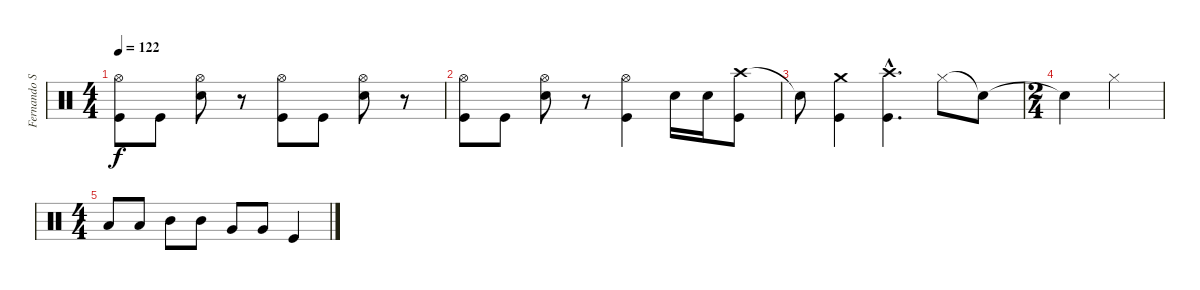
\track ("Fernando Sanchez" "Fernando S") {instrument percussion}
\staff {score}
\articulation defaults
\ts (4 4)
\tempo 122
\clef neutral
\ks c
("Hi-Hat (open)" "Kick (hit)").8{dy f} "Kick (hit)".8 ("Hi-Hat (open)" "Electric Snare (hit)").8 r.8 ("Hi-Hat (open)" "Kick (hit)").8 "Kick (hit)".8 ("Hi-Hat (open)" "Electric Snare (hit)").8 r.8 |
("Hi-Hat (open)" "Kick (hit)").8 "Kick (hit)".8 ("Hi-Hat (open)" "Electric Snare (hit)").8 r.8 ("Hi-Hat (open)" "Kick (hit)").4 "Electric Snare (hit)".16 "Electric Snare (hit)".16 ("Crash high (hit)" "Kick (hit)").8 |
"Snare (hit)"{t}.8 ("Crash medium (hit)" "Kick (hit)").4 ("Crash high (hit)"{hac} "Kick (hit)"{hac}).4{d} "Hi-Hat (closed)".8 "Snare (hit)"{t}.8 |
\ts (2 4)
"Snare (hit)"{t}.4 "Hi-Hat (closed)".4 |
\ts (4 4)
"Low Tom (hit)".8 "Low Tom (hit)".8 "Mid Tom (hit)".8 "Mid Tom (hit)".8 "Very Low Tom (hit)".8 "Very Low Tom (hit)".8 "Kick (hit)".4
